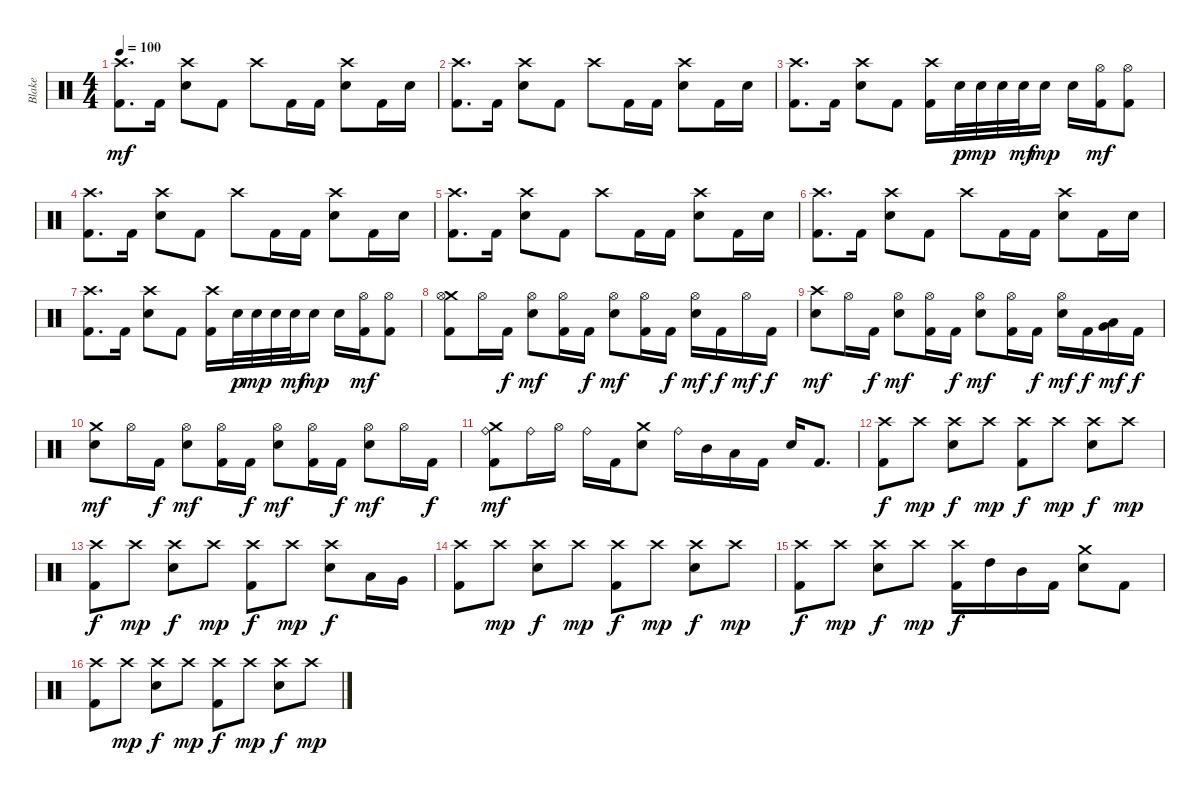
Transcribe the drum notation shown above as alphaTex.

\track ("Blake" "Blake") {instrument percussion}
\staff {score}
\articulation defaults
\ts (4 4)
\tempo 100
\clef neutral
\ks c
("Crash high (hit)" "Kick (hit) 2").8{d dy mf} "Kick (hit) 2".16 ("Crash high (hit)" "Snare (hit) 2").8 "Kick (hit) 2".8 "Crash high (hit)".8 "Kick (hit) 2".16 "Kick (hit) 2".16 ("Crash high (hit)" "Snare (hit) 2").8 "Kick (hit) 2".16 "Snare (hit) 2".16 |
("Crash high (hit)" "Kick (hit) 2").8{d} "Kick (hit) 2".16 ("Crash high (hit)" "Snare (hit) 2").8 "Kick (hit) 2".8 "Crash high (hit)".8 "Kick (hit) 2".16 "Kick (hit) 2".16 ("Crash high (hit)" "Snare (hit) 2").8 "Kick (hit) 2".16 "Snare (hit) 2".16 |
("Crash high (hit)" "Kick (hit) 2").8{d} "Kick (hit) 2".16 ("Crash high (hit)" "Snare (hit) 2").8 "Kick (hit) 2".8 ("Crash high (hit)" "Kick (hit) 2").16 "Snare (hit) 2".32{dy p} "Snare (hit) 2".32{dy mp} "Snare (hit) 2".32 "Snare (hit) 2".32{dy mf} "Snare (hit) 2".16{dy mp} "Snare (hit) 2".16 ("Hi-Hat (open)" "Kick (hit) 2").16{dy mf} ("Hi-Hat (open)" "Kick (hit) 2").8 |
("Crash high (hit)" "Kick (hit) 2").8{d} "Kick (hit) 2".16 ("Crash high (hit)" "Snare (hit) 2").8 "Kick (hit) 2".8 "Crash high (hit)".8 "Kick (hit) 2".16 "Kick (hit) 2".16 ("Crash high (hit)" "Snare (hit) 2").8 "Kick (hit) 2".16 "Snare (hit) 2".16 |
("Crash high (hit)" "Kick (hit) 2").8{d} "Kick (hit) 2".16 ("Crash high (hit)" "Snare (hit) 2").8 "Kick (hit) 2".8 "Crash high (hit)".8 "Kick (hit) 2".16 "Kick (hit) 2".16 ("Crash high (hit)" "Snare (hit) 2").8 "Kick (hit) 2".16 "Snare (hit) 2".16 |
("Crash high (hit)" "Kick (hit) 2").8{d} "Kick (hit) 2".16 ("Crash high (hit)" "Snare (hit) 2").8 "Kick (hit) 2".8 "Crash high (hit)".8 "Kick (hit) 2".16 "Kick (hit) 2".16 ("Crash high (hit)" "Snare (hit) 2").8 "Kick (hit) 2".16 "Snare (hit) 2".16 |
("Crash high (hit)" "Kick (hit) 2").8{d} "Kick (hit) 2".16 ("Crash high (hit)" "Snare (hit) 2").8 "Kick (hit) 2".8 ("Crash high (hit)" "Kick (hit) 2").16 "Snare (hit) 2".32{dy p} "Snare (hit) 2".32{dy mp} "Snare (hit) 2".32 "Snare (hit) 2".32{dy mf} "Snare (hit) 2".16{dy mp} "Snare (hit) 2".16 ("Hi-Hat (open)" "Kick (hit) 2").16{dy mf} ("Hi-Hat (open)" "Kick (hit) 2").8 |
("Crash medium (hit)" "Hi-Hat (open)" "Kick (hit) 2").8 "Hi-Hat (open)".16 "Kick (hit) 2".16{dy f} ("Hi-Hat (open)" "Snare (hit) 2").8{dy mf} ("Hi-Hat (open)" "Kick (hit) 2").16 "Kick (hit) 2".16{dy f} ("Hi-Hat (open)" "Snare (hit) 2").8{dy mf} ("Hi-Hat (open)" "Kick (hit) 2").16 "Kick (hit) 2".16{dy f} ("Hi-Hat (open)" "Snare (hit) 2").16{dy mf} "Kick (hit) 2".16{dy f} "Hi-Hat (open)".16{dy mf} "Kick (hit) 2".16{dy f} |
("Crash high (hit)" "Snare (hit) 2").8{dy mf} "Hi-Hat (open)".16 "Kick (hit) 2".16{dy f} ("Hi-Hat (open)" "Snare (hit) 2").8{dy mf} ("Hi-Hat (open)" "Kick (hit) 2").16 "Kick (hit) 2".16{dy f} ("Hi-Hat (open)" "Snare (hit) 2").8{dy mf} ("Hi-Hat (open)" "Kick (hit) 2").16 "Kick (hit) 2".16{dy f} ("Hi-Hat (open)" "Snare (hit) 2").16{dy mf} "Kick (hit) 2".16{dy f} ("Low Floor Tom (hit)" "Very Low Tom (hit)").16{dy mf} "Kick (hit) 2".16{dy f} |
("Crash medium (hit)" "Snare (hit) 2").8{dy mf} "Hi-Hat (open)".16 "Kick (hit) 2".16{dy f} ("Hi-Hat (open)" "Snare (hit) 2").8{dy mf} ("Hi-Hat (open)" "Kick (hit) 2").16 "Kick (hit) 2".16{dy f} ("Hi-Hat (open)" "Snare (hit) 2").8{dy mf} ("Hi-Hat (open)" "Kick (hit) 2").16 "Kick (hit) 2".16{dy f} ("Hi-Hat (open)" "Snare (hit) 2").8{dy mf} "Hi-Hat (open)".16 "Kick (hit) 2".16{dy f} |
("Crash medium (hit)" "Ride (bell)" "Kick (hit) 2").8{dy mf} "Ride (bell)".16 "Hi-Hat (open)".16 "Ride (bell)".16 "Kick (hit) 2".16 ("Crash medium (hit)" "Snare (hit) 2").8 "Ride (bell)".16 "Mid Tom (hit)".16 "Low Tom (hit)".16 "Kick (hit) 2".16 "Snare (hit) 2".16 "Kick (hit) 2".8{d} |
("Crash high (hit)" "Kick (hit) 2").8{dy f} "Crash high (hit)".8{dy mp} ("Crash high (hit)" "Snare (hit) 2").8{dy f} "Crash high (hit)".8{dy mp} ("Crash high (hit)" "Kick (hit) 2").8{dy f} "Crash high (hit)".8{dy mp} ("Crash high (hit)" "Snare (hit) 2").8{dy f} "Crash high (hit)".8{dy mp} |
("Crash high (hit)" "Kick (hit) 2").8{dy f} "Crash high (hit)".8{dy mp} ("Crash high (hit)" "Snare (hit) 2").8{dy f} "Crash high (hit)".8{dy mp} ("Crash high (hit)" "Kick (hit) 2").8{dy f} "Crash high (hit)".8{dy mp} ("Crash high (hit)" "Snare (hit) 2").8{dy f} "Low Tom (hit)".16 "Very Low Tom (hit)".16 |
("Crash high (hit)" "Kick (hit) 2").8 "Crash high (hit)".8{dy mp} ("Crash high (hit)" "Snare (hit) 2").8{dy f} "Crash high (hit)".8{dy mp} ("Crash high (hit)" "Kick (hit) 2").8{dy f} "Crash high (hit)".8{dy mp} ("Crash high (hit)" "Snare (hit) 2").8{dy f} "Crash high (hit)".8{dy mp} |
("Crash high (hit)" "Kick (hit) 2").8{dy f} "Crash high (hit)".8{dy mp} ("Crash high (hit)" "Snare (hit) 2").8{dy f} "Crash high (hit)".8{dy mp} ("Crash high (hit)" "Kick (hit) 2").16{dy f} "High Tom (hit)".16 "Mid Tom (hit)".16 "Kick (hit) 2".16 ("Crash medium (hit)" "Snare (hit) 2").8 "Kick (hit) 2".8 |
("Crash high (hit)" "Kick (hit) 2").8 "Crash high (hit)".8{dy mp} ("Crash high (hit)" "Snare (hit) 2").8{dy f} "Crash high (hit)".8{dy mp} ("Crash high (hit)" "Kick (hit) 2").8{dy f} "Crash high (hit)".8{dy mp} ("Crash high (hit)" "Snare (hit) 2").8{dy f} "Crash high (hit)".8{dy mp}
